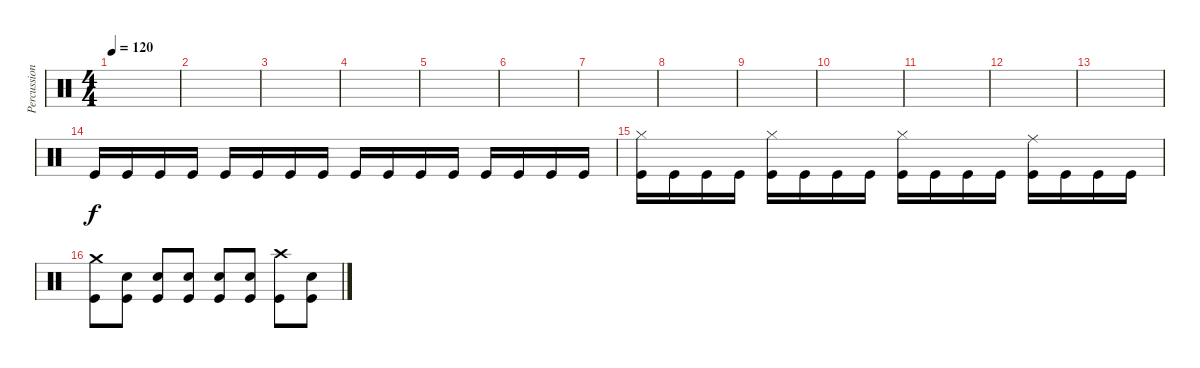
\track ("Percussion" "Percussion") {instrument percussion}
\staff {score}
\articulation defaults
\ts (4 4)
\tempo 120
\clef neutral
\ks c
|
|
|
|
|
|
|
|
|
|
|
|
|
"Kick (hit)".16 "Kick (hit)".16 "Kick (hit)".16 "Kick (hit)".16 "Kick (hit)".16 "Kick (hit)".16 "Kick (hit)".16 "Kick (hit)".16 "Kick (hit)".16 "Kick (hit)".16 "Kick (hit)".16 "Kick (hit)".16 "Kick (hit)".16 "Kick (hit)".16 "Kick (hit)".16 "Kick (hit)".16 |
("Hi-Hat (closed)" "Kick (hit)").16 "Kick (hit)".16 "Kick (hit)".16 "Kick (hit)".16 ("Hi-Hat (closed)" "Kick (hit)").16 "Kick (hit)".16 "Kick (hit)".16 "Kick (hit)".16 ("Hi-Hat (closed)" "Kick (hit)").16 "Kick (hit)".16 "Kick (hit)".16 "Kick (hit)".16 ("Ride (middle)" "Kick (hit)").16 "Kick (hit)".16 "Kick (hit)".16 "Kick (hit)".16 |
("Crash medium (hit)" "Kick (hit)").8 ("Electric Snare (hit)" "Kick (hit)").8 ("Electric Snare (hit)" "Kick (hit)").8 ("Electric Snare (hit)" "Kick (hit)").8 ("Electric Snare (hit)" "Kick (hit)").8 ("Electric Snare (hit)" "Kick (hit)").8 ("Crash high (hit)" "Kick (hit)").8 ("Electric Snare (hit)" "Kick (hit)").8
